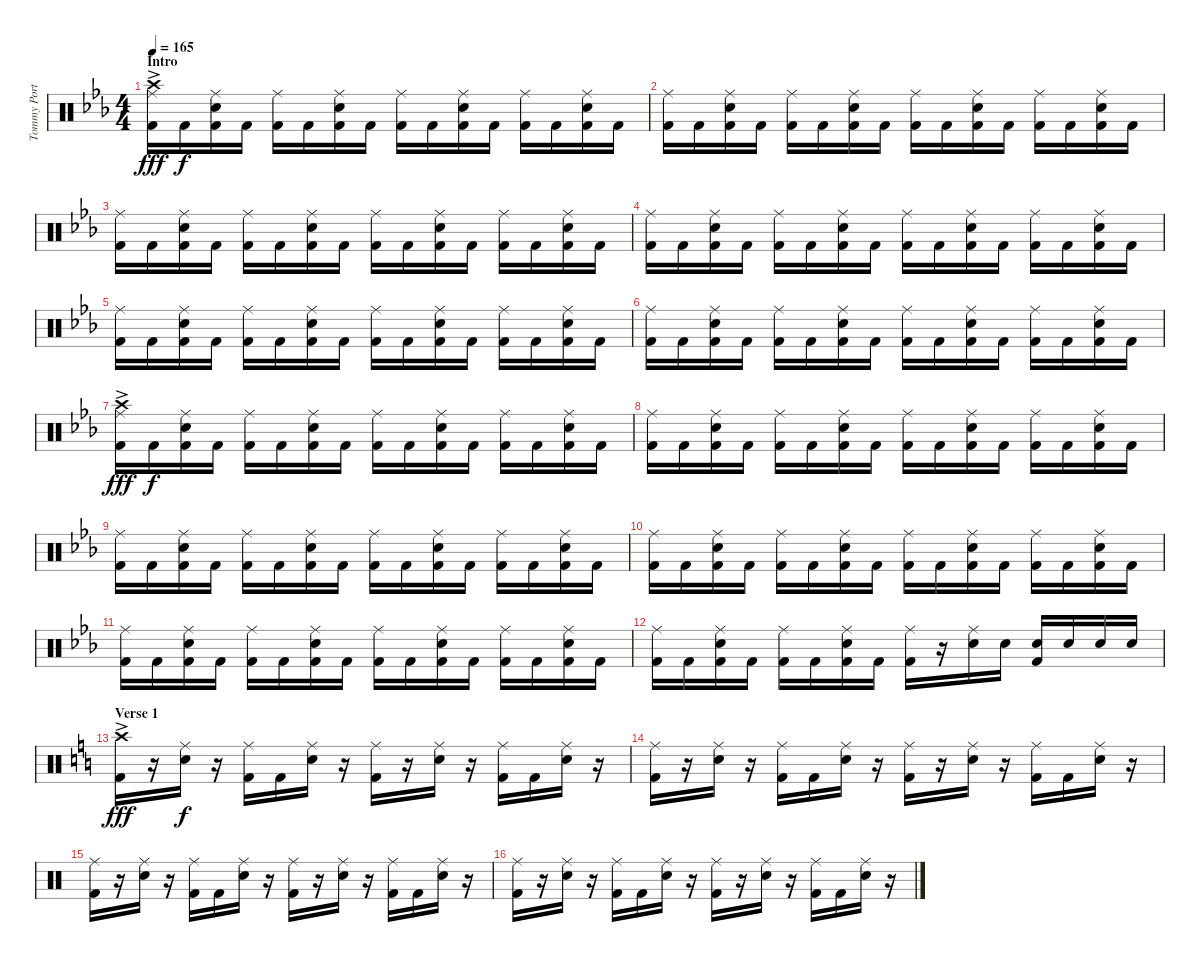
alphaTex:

\track ("Tommy Portimo" "Tommy Port") {instrument percussion}
\staff {score}
\articulation defaults
\ts (4 4)
\section ("" "Intro")
\tempo 165
\clef neutral
\ks cminor
("Crash high (hit)"{ac} "Ride (middle)" "Kick (hit) 2").16{dy fff} "Kick (hit) 2".16{dy f} ("Ride (middle)" "Electric Snare (hit)" "Kick (hit) 2").16 "Kick (hit) 2".16 ("Ride (middle)" "Kick (hit) 2").16 "Kick (hit) 2".16 ("Ride (middle)" "Electric Snare (hit)" "Kick (hit) 2").16 "Kick (hit) 2".16 ("Ride (middle)" "Kick (hit) 2").16 "Kick (hit) 2".16 ("Ride (middle)" "Electric Snare (hit)" "Kick (hit) 2").16 "Kick (hit) 2".16 ("Ride (middle)" "Kick (hit) 2").16 "Kick (hit) 2".16 ("Ride (middle)" "Electric Snare (hit)" "Kick (hit) 2").16 "Kick (hit) 2".16 |
("Ride (middle)" "Kick (hit) 2").16 "Kick (hit) 2".16 ("Ride (middle)" "Electric Snare (hit)" "Kick (hit) 2").16 "Kick (hit) 2".16 ("Ride (middle)" "Kick (hit) 2").16 "Kick (hit) 2".16 ("Ride (middle)" "Electric Snare (hit)" "Kick (hit) 2").16 "Kick (hit) 2".16 ("Ride (middle)" "Kick (hit) 2").16 "Kick (hit) 2".16 ("Ride (middle)" "Electric Snare (hit)" "Kick (hit) 2").16 "Kick (hit) 2".16 ("Ride (middle)" "Kick (hit) 2").16 "Kick (hit) 2".16 ("Ride (middle)" "Electric Snare (hit)" "Kick (hit) 2").16 "Kick (hit) 2".16 |
("Ride (middle)" "Kick (hit) 2").16 "Kick (hit) 2".16 ("Ride (middle)" "Electric Snare (hit)" "Kick (hit) 2").16 "Kick (hit) 2".16 ("Ride (middle)" "Kick (hit) 2").16 "Kick (hit) 2".16 ("Ride (middle)" "Electric Snare (hit)" "Kick (hit) 2").16 "Kick (hit) 2".16 ("Ride (middle)" "Kick (hit) 2").16 "Kick (hit) 2".16 ("Ride (middle)" "Electric Snare (hit)" "Kick (hit) 2").16 "Kick (hit) 2".16 ("Ride (middle)" "Kick (hit) 2").16 "Kick (hit) 2".16 ("Ride (middle)" "Electric Snare (hit)" "Kick (hit) 2").16 "Kick (hit) 2".16 |
("Ride (middle)" "Kick (hit) 2").16 "Kick (hit) 2".16 ("Ride (middle)" "Electric Snare (hit)" "Kick (hit) 2").16 "Kick (hit) 2".16 ("Ride (middle)" "Kick (hit) 2").16 "Kick (hit) 2".16 ("Ride (middle)" "Electric Snare (hit)" "Kick (hit) 2").16 "Kick (hit) 2".16 ("Ride (middle)" "Kick (hit) 2").16 "Kick (hit) 2".16 ("Ride (middle)" "Electric Snare (hit)" "Kick (hit) 2").16 "Kick (hit) 2".16 ("Ride (middle)" "Kick (hit) 2").16 "Kick (hit) 2".16 ("Ride (middle)" "Electric Snare (hit)" "Kick (hit) 2").16 "Kick (hit) 2".16 |
("Ride (middle)" "Kick (hit) 2").16 "Kick (hit) 2".16 ("Ride (middle)" "Electric Snare (hit)" "Kick (hit) 2").16 "Kick (hit) 2".16 ("Ride (middle)" "Kick (hit) 2").16 "Kick (hit) 2".16 ("Ride (middle)" "Electric Snare (hit)" "Kick (hit) 2").16 "Kick (hit) 2".16 ("Ride (middle)" "Kick (hit) 2").16 "Kick (hit) 2".16 ("Ride (middle)" "Electric Snare (hit)" "Kick (hit) 2").16 "Kick (hit) 2".16 ("Ride (middle)" "Kick (hit) 2").16 "Kick (hit) 2".16 ("Ride (middle)" "Electric Snare (hit)" "Kick (hit) 2").16 "Kick (hit) 2".16 |
("Ride (middle)" "Kick (hit) 2").16 "Kick (hit) 2".16 ("Ride (middle)" "Electric Snare (hit)" "Kick (hit) 2").16 "Kick (hit) 2".16 ("Ride (middle)" "Kick (hit) 2").16 "Kick (hit) 2".16 ("Ride (middle)" "Electric Snare (hit)" "Kick (hit) 2").16 "Kick (hit) 2".16 ("Ride (middle)" "Kick (hit) 2").16 "Kick (hit) 2".16 ("Ride (middle)" "Electric Snare (hit)" "Kick (hit) 2").16 "Kick (hit) 2".16 ("Ride (middle)" "Kick (hit) 2").16 "Kick (hit) 2".16 ("Ride (middle)" "Electric Snare (hit)" "Kick (hit) 2").16 "Kick (hit) 2".16 |
("Crash high (hit)"{ac} "Ride (middle)" "Kick (hit) 2").16{dy fff} "Kick (hit) 2".16{dy f} ("Ride (middle)" "Electric Snare (hit)" "Kick (hit) 2").16 "Kick (hit) 2".16 ("Ride (middle)" "Kick (hit) 2").16 "Kick (hit) 2".16 ("Ride (middle)" "Electric Snare (hit)" "Kick (hit) 2").16 "Kick (hit) 2".16 ("Ride (middle)" "Kick (hit) 2").16 "Kick (hit) 2".16 ("Ride (middle)" "Electric Snare (hit)" "Kick (hit) 2").16 "Kick (hit) 2".16 ("Ride (middle)" "Kick (hit) 2").16 "Kick (hit) 2".16 ("Ride (middle)" "Electric Snare (hit)" "Kick (hit) 2").16 "Kick (hit) 2".16 |
("Ride (middle)" "Kick (hit) 2").16 "Kick (hit) 2".16 ("Ride (middle)" "Electric Snare (hit)" "Kick (hit) 2").16 "Kick (hit) 2".16 ("Ride (middle)" "Kick (hit) 2").16 "Kick (hit) 2".16 ("Ride (middle)" "Electric Snare (hit)" "Kick (hit) 2").16 "Kick (hit) 2".16 ("Ride (middle)" "Kick (hit) 2").16 "Kick (hit) 2".16 ("Ride (middle)" "Electric Snare (hit)" "Kick (hit) 2").16 "Kick (hit) 2".16 ("Ride (middle)" "Kick (hit) 2").16 "Kick (hit) 2".16 ("Ride (middle)" "Electric Snare (hit)" "Kick (hit) 2").16 "Kick (hit) 2".16 |
("Ride (middle)" "Kick (hit) 2").16 "Kick (hit) 2".16 ("Ride (middle)" "Electric Snare (hit)" "Kick (hit) 2").16 "Kick (hit) 2".16 ("Ride (middle)" "Kick (hit) 2").16 "Kick (hit) 2".16 ("Ride (middle)" "Electric Snare (hit)" "Kick (hit) 2").16 "Kick (hit) 2".16 ("Ride (middle)" "Kick (hit) 2").16 "Kick (hit) 2".16 ("Ride (middle)" "Electric Snare (hit)" "Kick (hit) 2").16 "Kick (hit) 2".16 ("Ride (middle)" "Kick (hit) 2").16 "Kick (hit) 2".16 ("Ride (middle)" "Electric Snare (hit)" "Kick (hit) 2").16 "Kick (hit) 2".16 |
("Ride (middle)" "Kick (hit) 2").16 "Kick (hit) 2".16 ("Ride (middle)" "Electric Snare (hit)" "Kick (hit) 2").16 "Kick (hit) 2".16 ("Ride (middle)" "Kick (hit) 2").16 "Kick (hit) 2".16 ("Ride (middle)" "Electric Snare (hit)" "Kick (hit) 2").16 "Kick (hit) 2".16 ("Ride (middle)" "Kick (hit) 2").16 "Kick (hit) 2".16 ("Ride (middle)" "Electric Snare (hit)" "Kick (hit) 2").16 "Kick (hit) 2".16 ("Ride (middle)" "Kick (hit) 2").16 "Kick (hit) 2".16 ("Ride (middle)" "Electric Snare (hit)" "Kick (hit) 2").16 "Kick (hit) 2".16 |
("Ride (middle)" "Kick (hit) 2").16 "Kick (hit) 2".16 ("Ride (middle)" "Electric Snare (hit)" "Kick (hit) 2").16 "Kick (hit) 2".16 ("Ride (middle)" "Kick (hit) 2").16 "Kick (hit) 2".16 ("Ride (middle)" "Electric Snare (hit)" "Kick (hit) 2").16 "Kick (hit) 2".16 ("Ride (middle)" "Kick (hit) 2").16 "Kick (hit) 2".16 ("Ride (middle)" "Electric Snare (hit)" "Kick (hit) 2").16 "Kick (hit) 2".16 ("Ride (middle)" "Kick (hit) 2").16 "Kick (hit) 2".16 ("Ride (middle)" "Electric Snare (hit)" "Kick (hit) 2").16 "Kick (hit) 2".16 |
("Ride (middle)" "Kick (hit) 2").16 "Kick (hit) 2".16 ("Ride (middle)" "Electric Snare (hit)" "Kick (hit) 2").16 "Kick (hit) 2".16 ("Ride (middle)" "Kick (hit) 2").16 "Kick (hit) 2".16 ("Ride (middle)" "Electric Snare (hit)" "Kick (hit) 2").16 "Kick (hit) 2".16 ("Ride (middle)" "Kick (hit) 2").16 r.16 ("Ride (middle)" "Electric Snare (hit)").16 "Electric Snare (hit)".16 ("Electric Snare (hit)" "Kick (hit) 2").16 "Electric Snare (hit)".16 "Electric Snare (hit)".16 "Electric Snare (hit)".16 |
\section ("" "Verse 1")
\ks aminor
("Crash high (hit)"{ac} "Kick (hit) 2").16{dy fff} r.16 ("Ride (middle)" "Electric Snare (hit)").16{dy f} r.16 ("Ride (middle)" "Kick (hit) 2").16 "Kick (hit) 2".16 ("Ride (middle)" "Electric Snare (hit)").16 r.16 ("Ride (middle)" "Kick (hit) 2").16 r.16 ("Ride (middle)" "Electric Snare (hit)").16 r.16 ("Ride (middle)" "Kick (hit) 2").16 "Kick (hit) 2".16 ("Ride (middle)" "Electric Snare (hit)").16 r.16 |
("Ride (middle)" "Kick (hit) 2").16 r.16 ("Ride (middle)" "Electric Snare (hit)").16 r.16 ("Ride (middle)" "Kick (hit) 2").16 "Kick (hit) 2".16 ("Ride (middle)" "Electric Snare (hit)").16 r.16 ("Ride (middle)" "Kick (hit) 2").16 r.16 ("Ride (middle)" "Electric Snare (hit)").16 r.16 ("Ride (middle)" "Kick (hit) 2").16 "Kick (hit) 2".16 ("Ride (middle)" "Electric Snare (hit)").16 r.16 |
("Ride (middle)" "Kick (hit) 2").16 r.16 ("Ride (middle)" "Electric Snare (hit)").16 r.16 ("Ride (middle)" "Kick (hit) 2").16 "Kick (hit) 2".16 ("Ride (middle)" "Electric Snare (hit)").16 r.16 ("Ride (middle)" "Kick (hit) 2").16 r.16 ("Ride (middle)" "Electric Snare (hit)").16 r.16 ("Ride (middle)" "Kick (hit) 2").16 "Kick (hit) 2".16 ("Ride (middle)" "Electric Snare (hit)").16 r.16 |
("Ride (middle)" "Kick (hit) 2").16 r.16 ("Ride (middle)" "Electric Snare (hit)").16 r.16 ("Ride (middle)" "Kick (hit) 2").16 "Kick (hit) 2".16 ("Ride (middle)" "Electric Snare (hit)").16 r.16 ("Ride (middle)" "Kick (hit) 2").16 r.16 ("Ride (middle)" "Electric Snare (hit)").16 r.16 ("Ride (middle)" "Kick (hit) 2").16 "Kick (hit) 2".16 ("Ride (middle)" "Electric Snare (hit)").16 r.16
